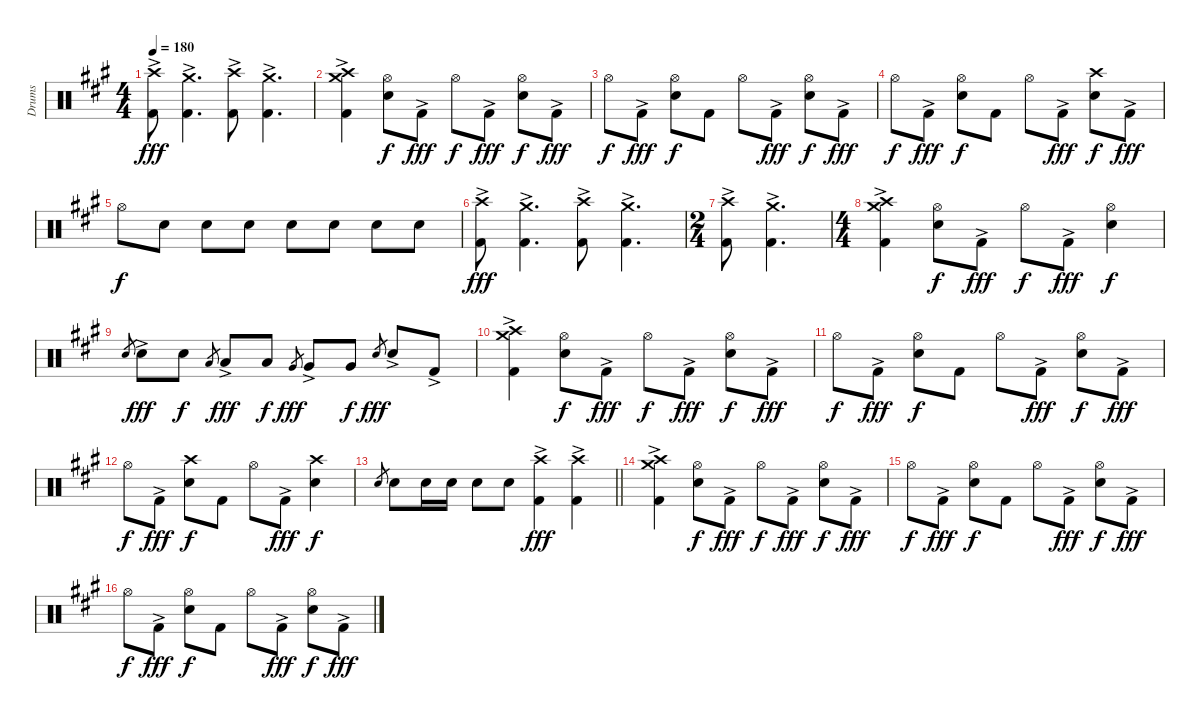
\track ("Drums" "Drums") {instrument percussion}
\staff {score}
\articulation defaults
\ts (4 4)
\tempo 180
\clef neutral
\ks f#minor
("Crash high (hit)" "Kick (hit) 2"{ac}).8{dy fff} ("Crash medium (hit)" "Kick (hit) 2"{ac}).4{d} ("Crash high (hit)" "Kick (hit) 2"{ac}).8 ("Crash medium (hit)" "Kick (hit) 2"{ac}).4{d} |
("Crash high (hit)" "Crash medium (hit)" "Kick (hit) 2"{ac}).4 ("Hi-Hat (open)" "Snare (hit) 2").8{dy f} "Kick (hit) 2"{ac}.8{dy fff} "Hi-Hat (open)".8{dy f} "Kick (hit) 2"{ac}.8{dy fff} ("Hi-Hat (open)" "Snare (hit) 2").8{dy f} "Kick (hit) 2"{ac}.8{dy fff} |
"Hi-Hat (open)".8{dy f} "Kick (hit) 2"{ac}.8{dy fff} ("Hi-Hat (open)" "Snare (hit) 2").8{dy f} "Kick (hit) 2".8 "Hi-Hat (open)".8 "Kick (hit) 2"{ac}.8{dy fff} ("Hi-Hat (open)" "Snare (hit) 2").8{dy f} "Kick (hit) 2"{ac}.8{dy fff} |
"Hi-Hat (open)".8{dy f} "Kick (hit) 2"{ac}.8{dy fff} ("Hi-Hat (open)" "Snare (hit) 2").8{dy f} "Kick (hit) 2".8 "Hi-Hat (open)".8 "Kick (hit) 2"{ac}.8{dy fff} ("Crash high (hit)" "Snare (hit) 2").8{dy f} "Kick (hit) 2"{ac}.8{dy fff} |
"Hi-Hat (open)".8{dy f} "Snare (hit) 2".8 "Snare (hit) 2".8 "Snare (hit) 2".8 "Snare (hit) 2".8 "Snare (hit) 2".8 "Snare (hit) 2".8 "Snare (hit) 2".8 |
("Crash high (hit)" "Kick (hit) 2"{ac}).8{dy fff} ("Crash medium (hit)" "Kick (hit) 2"{ac}).4{d} ("Crash high (hit)" "Kick (hit) 2"{ac}).8 ("Crash medium (hit)" "Kick (hit) 2"{ac}).4{d} |
\ts (2 4)
("Crash high (hit)" "Kick (hit) 2"{ac}).8 ("Crash medium (hit)" "Kick (hit) 2"{ac}).4{d} |
\ts (4 4)
("Crash high (hit)" "Crash medium (hit)" "Kick (hit) 2"{ac}).4 ("Hi-Hat (open)" "Snare (hit) 2").8{dy f} "Kick (hit) 2"{ac}.8{dy fff} "Hi-Hat (open)".8{dy f} "Kick (hit) 2"{ac}.8{dy fff} ("Hi-Hat (open)" "Snare (hit) 2").4{dy f} |
"Snare (hit) 2".8{gr} "Snare (hit) 2"{ac}.8{dy fff} "Snare (hit) 2".8{dy f} "Low Tom (hit)".8{gr} "Low Tom (hit)"{ac}.8{dy fff} "Low Tom (hit)".8{dy f} "Very Low Tom (hit)".8{gr dy fff} "Very Low Tom (hit)"{ac}.8 "Very Low Tom (hit)".8{dy f} "Snare (hit) 2".8{gr dy fff} "Snare (hit) 2"{ac}.8 "Kick (hit) 2"{ac}.8 |
("Crash high (hit)" "Crash medium (hit)" "Kick (hit) 2"{ac}).4 ("Hi-Hat (open)" "Snare (hit) 2").8{dy f} "Kick (hit) 2"{ac}.8{dy fff} "Hi-Hat (open)".8{dy f} "Kick (hit) 2"{ac}.8{dy fff} ("Hi-Hat (open)" "Snare (hit) 2").8{dy f} "Kick (hit) 2"{ac}.8{dy fff} |
"Hi-Hat (open)".8{dy f} "Kick (hit) 2"{ac}.8{dy fff} ("Hi-Hat (open)" "Snare (hit) 2").8{dy f} "Kick (hit) 2".8 "Hi-Hat (open)".8 "Kick (hit) 2"{ac}.8{dy fff} ("Hi-Hat (open)" "Snare (hit) 2").8{dy f} "Kick (hit) 2"{ac}.8{dy fff} |
"Hi-Hat (open)".8{dy f} "Kick (hit) 2"{ac}.8{dy fff} ("Crash high (hit)" "Snare (hit) 2").8{dy f} "Kick (hit) 2".8 "Hi-Hat (open)".8 "Kick (hit) 2"{ac}.8{dy fff} ("Crash high (hit)" "Snare (hit) 2").4{dy f} |
\barLineRight lightlight "Snare (hit) 2".8{gr} "Snare (hit) 2".8 "Snare (hit) 2".16 "Snare (hit) 2".16 "Snare (hit) 2".8 "Snare (hit) 2".8
("Crash high (hit)" "Kick (hit) 2"{ac}).4{dy fff} ("Crash high (hit)" "Kick (hit) 2"{ac}).4 |
("Crash high (hit)" "Crash medium (hit)" "Kick (hit) 2"{ac}).4 ("Hi-Hat (open)" "Snare (hit) 2").8{dy f} "Kick (hit) 2"{ac}.8{dy fff} "Hi-Hat (open)".8{dy f} "Kick (hit) 2"{ac}.8{dy fff} ("Hi-Hat (open)" "Snare (hit) 2").8{dy f} "Kick (hit) 2"{ac}.8{dy fff} |
"Hi-Hat (open)".8{dy f} "Kick (hit) 2"{ac}.8{dy fff} ("Hi-Hat (open)" "Snare (hit) 2").8{dy f} "Kick (hit) 2".8 "Hi-Hat (open)".8 "Kick (hit) 2"{ac}.8{dy fff} ("Hi-Hat (open)" "Snare (hit) 2").8{dy f} "Kick (hit) 2"{ac}.8{dy fff} |
"Hi-Hat (open)".8{dy f} "Kick (hit) 2"{ac}.8{dy fff} ("Hi-Hat (open)" "Snare (hit) 2").8{dy f} "Kick (hit) 2".8 "Hi-Hat (open)".8 "Kick (hit) 2"{ac}.8{dy fff} ("Hi-Hat (open)" "Snare (hit) 2").8{dy f} "Kick (hit) 2"{ac}.8{dy fff}
